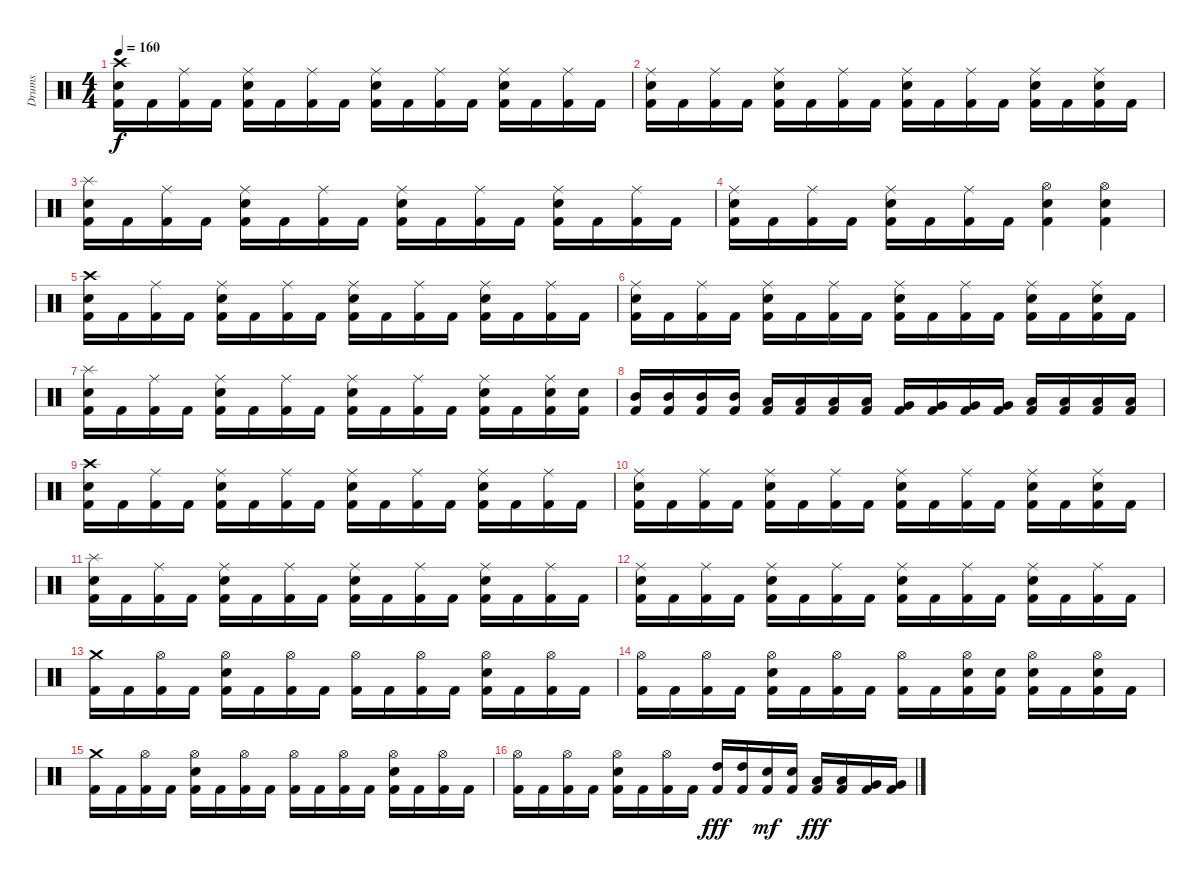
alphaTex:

\track ("Drums" "Drums") {instrument percussion}
\staff {score}
\articulation defaults
\ts (4 4)
\tempo 160
\clef neutral
\ks c
("Kick (hit) 2" "Electric Snare (hit)" "Crash high (hit)").16{dy f} "Kick (hit) 2".16 ("Kick (hit) 2" "Ride (middle)").16 "Kick (hit) 2".16 ("Kick (hit) 2" "Electric Snare (hit)" "Ride (middle)").16 "Kick (hit) 2".16 ("Kick (hit) 2" "Ride (middle)").16 "Kick (hit) 2".16 ("Kick (hit) 2" "Electric Snare (hit)" "Ride (middle)").16 "Kick (hit) 2".16 ("Kick (hit) 2" "Ride (middle)").16 "Kick (hit) 2".16 ("Kick (hit) 2" "Electric Snare (hit)" "Ride (middle)").16 "Kick (hit) 2".16 ("Kick (hit) 2" "Ride (middle)").16 "Kick (hit) 2".16 |
("Kick (hit) 2" "Electric Snare (hit)" "Ride (middle)").16 "Kick (hit) 2".16 ("Kick (hit) 2" "Ride (middle)").16 "Kick (hit) 2".16 ("Kick (hit) 2" "Electric Snare (hit)" "Ride (middle)").16 "Kick (hit) 2".16 ("Kick (hit) 2" "Ride (middle)").16 "Kick (hit) 2".16 ("Kick (hit) 2" "Electric Snare (hit)" "Ride (middle)").16 "Kick (hit) 2".16 ("Kick (hit) 2" "Ride (middle)").16 "Kick (hit) 2".16 ("Kick (hit) 2" "Electric Snare (hit)" "Ride (middle)").16 "Kick (hit) 2".16 ("Kick (hit) 2" "Electric Snare (hit)" "Ride (middle)").16 "Kick (hit) 2".16 |
("Kick (hit) 2" "Electric Snare (hit)" "Splash (hit)").16 "Kick (hit) 2".16 ("Kick (hit) 2" "Ride (middle)").16 "Kick (hit) 2".16 ("Kick (hit) 2" "Electric Snare (hit)" "Ride (middle)").16 "Kick (hit) 2".16 ("Kick (hit) 2" "Ride (middle)").16 "Kick (hit) 2".16 ("Kick (hit) 2" "Electric Snare (hit)" "Ride (middle)").16 "Kick (hit) 2".16 ("Kick (hit) 2" "Ride (middle)").16 "Kick (hit) 2".16 ("Kick (hit) 2" "Electric Snare (hit)" "Ride (middle)").16 "Kick (hit) 2".16 ("Kick (hit) 2" "Ride (middle)").16 "Kick (hit) 2".16 |
("Kick (hit) 2" "Electric Snare (hit)" "Ride (middle)").16 "Kick (hit) 2".16 ("Kick (hit) 2" "Ride (middle)").16 "Kick (hit) 2".16 ("Kick (hit) 2" "Electric Snare (hit)" "Ride (middle)").16 "Kick (hit) 2".16 ("Kick (hit) 2" "Ride (middle)").16 "Kick (hit) 2".16 ("Kick (hit) 2" "Electric Snare (hit)" "Hi-Hat (open)").4 ("Kick (hit) 2" "Electric Snare (hit)" "Hi-Hat (open)").4 |
("Kick (hit) 2" "Electric Snare (hit)" "Crash high (hit)").16 "Kick (hit) 2".16 ("Kick (hit) 2" "Ride (middle)").16 "Kick (hit) 2".16 ("Kick (hit) 2" "Electric Snare (hit)" "Ride (middle)").16 "Kick (hit) 2".16 ("Kick (hit) 2" "Ride (middle)").16 "Kick (hit) 2".16 ("Kick (hit) 2" "Electric Snare (hit)" "Ride (middle)").16 "Kick (hit) 2".16 ("Kick (hit) 2" "Ride (middle)").16 "Kick (hit) 2".16 ("Kick (hit) 2" "Electric Snare (hit)" "Ride (middle)").16 "Kick (hit) 2".16 ("Kick (hit) 2" "Ride (middle)").16 "Kick (hit) 2".16 |
("Kick (hit) 2" "Electric Snare (hit)" "Ride (middle)").16 "Kick (hit) 2".16 ("Kick (hit) 2" "Ride (middle)").16 "Kick (hit) 2".16 ("Kick (hit) 2" "Electric Snare (hit)" "Ride (middle)").16 "Kick (hit) 2".16 ("Kick (hit) 2" "Ride (middle)").16 "Kick (hit) 2".16 ("Kick (hit) 2" "Electric Snare (hit)" "Ride (middle)").16 "Kick (hit) 2".16 ("Kick (hit) 2" "Ride (middle)").16 "Kick (hit) 2".16 ("Kick (hit) 2" "Electric Snare (hit)" "Ride (middle)").16 "Kick (hit) 2".16 ("Kick (hit) 2" "Electric Snare (hit)" "Ride (middle)").16 "Kick (hit) 2".16 |
("Kick (hit) 2" "Electric Snare (hit)" "Splash (hit)").16 "Kick (hit) 2".16 ("Kick (hit) 2" "Ride (middle)").16 "Kick (hit) 2".16 ("Kick (hit) 2" "Electric Snare (hit)" "Ride (middle)").16 "Kick (hit) 2".16 ("Kick (hit) 2" "Ride (middle)").16 "Kick (hit) 2".16 ("Kick (hit) 2" "Electric Snare (hit)" "Ride (middle)").16 "Kick (hit) 2".16 ("Kick (hit) 2" "Ride (middle)").16 "Kick (hit) 2".16 ("Kick (hit) 2" "Electric Snare (hit)" "Ride (middle)").16 "Kick (hit) 2".16 ("Kick (hit) 2" "Electric Snare (hit)" "Ride (middle)").16 ("Kick (hit) 2" "Electric Snare (hit)").16 |
("Kick (hit) 2" "Mid Tom (hit)").16 ("Kick (hit) 2" "Mid Tom (hit)").16 ("Kick (hit) 2" "Mid Tom (hit)").16 ("Kick (hit) 2" "Mid Tom (hit)").16 ("Kick (hit) 2" "Low Tom (hit)").16 ("Kick (hit) 2" "Low Tom (hit)").16 ("Kick (hit) 2" "Low Tom (hit)").16 ("Kick (hit) 2" "Low Tom (hit)").16 ("Kick (hit) 2" "Very Low Tom (hit)").16 ("Kick (hit) 2" "Very Low Tom (hit)").16 ("Kick (hit) 2" "Very Low Tom (hit)").16 ("Kick (hit) 2" "Very Low Tom (hit)").16 ("Kick (hit) 2" "Low Floor Tom (hit)").16 ("Kick (hit) 2" "Low Floor Tom (hit)").16 ("Kick (hit) 2" "Low Floor Tom (hit)").16 ("Kick (hit) 2" "Low Floor Tom (hit)").16 |
("Kick (hit) 2" "Electric Snare (hit)" "Crash high (hit)").16 "Kick (hit) 2".16 ("Kick (hit) 2" "Ride (middle)").16 "Kick (hit) 2".16 ("Kick (hit) 2" "Electric Snare (hit)" "Ride (middle)").16 "Kick (hit) 2".16 ("Kick (hit) 2" "Ride (middle)").16 "Kick (hit) 2".16 ("Kick (hit) 2" "Electric Snare (hit)" "Ride (middle)").16 "Kick (hit) 2".16 ("Kick (hit) 2" "Ride (middle)").16 "Kick (hit) 2".16 ("Kick (hit) 2" "Electric Snare (hit)" "Ride (middle)").16 "Kick (hit) 2".16 ("Kick (hit) 2" "Ride (middle)").16 "Kick (hit) 2".16 |
("Kick (hit) 2" "Electric Snare (hit)" "Ride (middle)").16 "Kick (hit) 2".16 ("Kick (hit) 2" "Ride (middle)").16 "Kick (hit) 2".16 ("Kick (hit) 2" "Electric Snare (hit)" "Ride (middle)").16 "Kick (hit) 2".16 ("Kick (hit) 2" "Ride (middle)").16 "Kick (hit) 2".16 ("Kick (hit) 2" "Electric Snare (hit)" "Ride (middle)").16 "Kick (hit) 2".16 ("Kick (hit) 2" "Ride (middle)").16 "Kick (hit) 2".16 ("Kick (hit) 2" "Electric Snare (hit)" "Ride (middle)").16 "Kick (hit) 2".16 ("Kick (hit) 2" "Electric Snare (hit)" "Ride (middle)").16 "Kick (hit) 2".16 |
("Kick (hit) 2" "Electric Snare (hit)" "Splash (hit)").16 "Kick (hit) 2".16 ("Kick (hit) 2" "Ride (middle)").16 "Kick (hit) 2".16 ("Kick (hit) 2" "Electric Snare (hit)" "Ride (middle)").16 "Kick (hit) 2".16 ("Kick (hit) 2" "Ride (middle)").16 "Kick (hit) 2".16 ("Kick (hit) 2" "Electric Snare (hit)" "Ride (middle)").16 "Kick (hit) 2".16 ("Kick (hit) 2" "Ride (middle)").16 "Kick (hit) 2".16 ("Kick (hit) 2" "Electric Snare (hit)" "Ride (middle)").16 "Kick (hit) 2".16 ("Kick (hit) 2" "Ride (middle)").16 "Kick (hit) 2".16 |
("Kick (hit) 2" "Electric Snare (hit)" "Ride (middle)").16 "Kick (hit) 2".16 ("Kick (hit) 2" "Ride (middle)").16 "Kick (hit) 2".16 ("Kick (hit) 2" "Electric Snare (hit)" "Ride (middle)").16 "Kick (hit) 2".16 ("Kick (hit) 2" "Ride (middle)").16 "Kick (hit) 2".16 ("Kick (hit) 2" "Electric Snare (hit)" "Ride (middle)").16 "Kick (hit) 2".16 ("Kick (hit) 2" "Ride (middle)").16 "Kick (hit) 2".16 ("Kick (hit) 2" "Electric Snare (hit)" "Ride (middle)").16 "Kick (hit) 2".16 ("Kick (hit) 2" "Ride (middle)").16 "Kick (hit) 2".16 |
("Kick (hit) 2" "Crash medium (hit)").16 "Kick (hit) 2".16 ("Kick (hit) 2" "Hi-Hat (open)").16 "Kick (hit) 2".16 ("Kick (hit) 2" "Electric Snare (hit)" "Hi-Hat (open)").16 "Kick (hit) 2".16 ("Kick (hit) 2" "Hi-Hat (open)").16 "Kick (hit) 2".16 ("Kick (hit) 2" "Hi-Hat (open)").16 "Kick (hit) 2".16 ("Kick (hit) 2" "Hi-Hat (open)").16 "Kick (hit) 2".16 ("Kick (hit) 2" "Electric Snare (hit)" "Hi-Hat (open)").16 "Kick (hit) 2".16 ("Kick (hit) 2" "Hi-Hat (open)").16 "Kick (hit) 2".16 |
("Kick (hit) 2" "Hi-Hat (open)").16 "Kick (hit) 2".16 ("Kick (hit) 2" "Hi-Hat (open)").16 "Kick (hit) 2".16 ("Kick (hit) 2" "Electric Snare (hit)" "Hi-Hat (open)").16 "Kick (hit) 2".16 ("Kick (hit) 2" "Hi-Hat (open)").16 "Kick (hit) 2".16 ("Kick (hit) 2" "Hi-Hat (open)").16 "Kick (hit) 2".16 ("Kick (hit) 2" "Electric Snare (hit)" "Hi-Hat (open)").16 ("Kick (hit) 2" "Electric Snare (hit)").16 ("Kick (hit) 2" "Electric Snare (hit)" "Hi-Hat (open)").16 "Kick (hit) 2".16 ("Kick (hit) 2" "Electric Snare (hit)" "Hi-Hat (open)").16 "Kick (hit) 2".16 |
("Kick (hit) 2" "Crash medium (hit)").16 "Kick (hit) 2".16 ("Kick (hit) 2" "Hi-Hat (open)").16 "Kick (hit) 2".16 ("Kick (hit) 2" "Electric Snare (hit)" "Hi-Hat (open)").16 "Kick (hit) 2".16 ("Kick (hit) 2" "Hi-Hat (open)").16 "Kick (hit) 2".16 ("Kick (hit) 2" "Hi-Hat (open)").16 "Kick (hit) 2".16 ("Kick (hit) 2" "Hi-Hat (open)").16 "Kick (hit) 2".16 ("Kick (hit) 2" "Electric Snare (hit)" "Hi-Hat (open)").16 "Kick (hit) 2".16 ("Kick (hit) 2" "Hi-Hat (open)").16 "Kick (hit) 2".16 |
("Kick (hit) 2" "Hi-Hat (open)").16 "Kick (hit) 2".16 ("Kick (hit) 2" "Hi-Hat (open)").16 "Kick (hit) 2".16 ("Kick (hit) 2" "Electric Snare (hit)" "Hi-Hat (open)").16 "Kick (hit) 2".16 ("Kick (hit) 2" "Hi-Hat (open)").16 "Kick (hit) 2".16 ("Kick (hit) 2" "High Tom (hit)").16{dy fff} ("Kick (hit) 2" "High Tom (hit)").16 ("Kick (hit) 2" "Electric Snare (hit)").16{dy mf} ("Kick (hit) 2" "Electric Snare (hit)").16 ("Kick (hit) 2" "Low Tom (hit)").16{dy fff} ("Kick (hit) 2" "Low Tom (hit)").16 ("Kick (hit) 2" "Very Low Tom (hit)").16 ("Kick (hit) 2" "Very Low Tom (hit)").16
